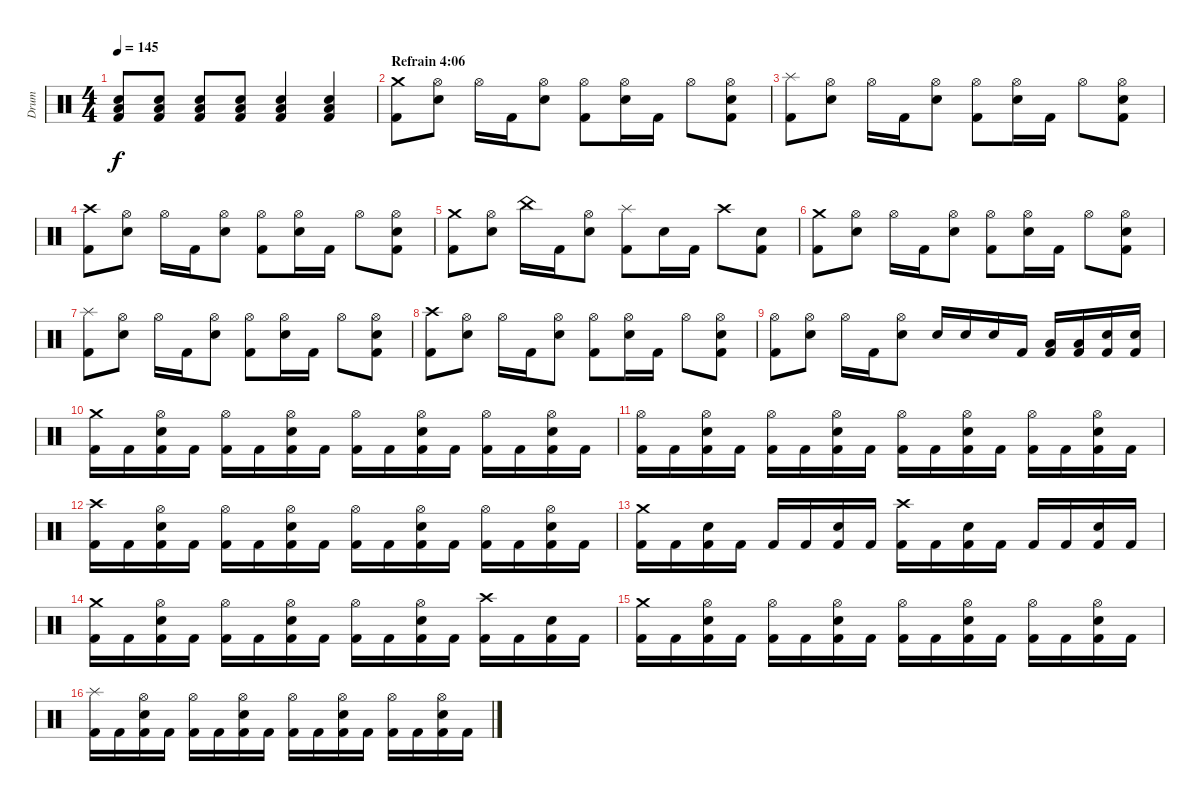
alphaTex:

\track ("Drum" "Drum") {instrument percussion}
\staff {score}
\articulation defaults
\ts (4 4)
\tempo 145
\clef neutral
\ks c
("Low Floor Tom (hit)" "Snare (hit) 2" "Kick (hit) 2").8{dy f} ("Low Floor Tom (hit)" "Snare (hit) 2" "Kick (hit) 2").8 ("Low Floor Tom (hit)" "Snare (hit) 2" "Kick (hit) 2").8 ("Low Floor Tom (hit)" "Snare (hit) 2" "Kick (hit) 2").8 ("Low Floor Tom (hit)" "Snare (hit) 2" "Kick (hit) 2").4 ("Low Floor Tom (hit)" "Snare (hit) 2" "Kick (hit) 2").4 |
\section ("" "Refrain 4:06")
("Crash medium (hit)" "Kick (hit) 2").8 ("Hi-Hat (open)" "Snare (hit) 2").8 "Hi-Hat (open)".16 "Kick (hit) 2".16 ("Hi-Hat (open)" "Snare (hit) 2").8 ("Hi-Hat (open)" "Kick (hit) 2").8 ("Hi-Hat (open)" "Snare (hit) 2").16 "Kick (hit) 2".16 "Hi-Hat (open)".8 ("Hi-Hat (open)" "Snare (hit) 2" "Kick (hit) 2").8 |
("Splash (hit)" "Kick (hit) 2").8 ("Hi-Hat (open)" "Snare (hit) 2").8 "Hi-Hat (open)".16 "Kick (hit) 2".16 ("Hi-Hat (open)" "Snare (hit) 2").8 ("Hi-Hat (open)" "Kick (hit) 2").8 ("Hi-Hat (open)" "Snare (hit) 2").16 "Kick (hit) 2".16 "Hi-Hat (open)".8 ("Hi-Hat (open)" "Snare (hit) 2" "Kick (hit) 2").8 |
("Crash high (hit)" "Kick (hit) 2").8 ("Hi-Hat (open)" "Snare (hit) 2").8 "Hi-Hat (open)".16 "Kick (hit) 2".16 ("Hi-Hat (open)" "Snare (hit) 2").8 ("Hi-Hat (open)" "Kick (hit) 2").8 ("Hi-Hat (open)" "Snare (hit) 2").16 "Kick (hit) 2".16 "Hi-Hat (open)".8 ("Hi-Hat (open)" "Snare (hit) 2" "Kick (hit) 2").8 |
("Crash medium (hit)" "Kick (hit) 2").8 ("Hi-Hat (open)" "Snare (hit) 2").8 "China (hit)".16 "Kick (hit) 2".16 ("Hi-Hat (open)" "Snare (hit) 2").8 ("Splash (hit)" "Kick (hit) 2").8 "Snare (hit) 2".16 "Kick (hit) 2".16 "Crash high (hit)".8 ("Snare (hit) 2" "Kick (hit) 2").8 |
("Crash medium (hit)" "Kick (hit) 2").8 ("Hi-Hat (open)" "Snare (hit) 2").8 "Hi-Hat (open)".16 "Kick (hit) 2".16 ("Hi-Hat (open)" "Snare (hit) 2").8 ("Hi-Hat (open)" "Kick (hit) 2").8 ("Hi-Hat (open)" "Snare (hit) 2").16 "Kick (hit) 2".16 "Hi-Hat (open)".8 ("Hi-Hat (open)" "Snare (hit) 2" "Kick (hit) 2").8 |
("Splash (hit)" "Kick (hit) 2").8 ("Hi-Hat (open)" "Snare (hit) 2").8 "Hi-Hat (open)".16 "Kick (hit) 2".16 ("Hi-Hat (open)" "Snare (hit) 2").8 ("Hi-Hat (open)" "Kick (hit) 2").8 ("Hi-Hat (open)" "Snare (hit) 2").16 "Kick (hit) 2".16 "Hi-Hat (open)".8 ("Hi-Hat (open)" "Snare (hit) 2" "Kick (hit) 2").8 |
("Crash high (hit)" "Kick (hit) 2").8 ("Hi-Hat (open)" "Snare (hit) 2").8 "Hi-Hat (open)".16 "Kick (hit) 2".16 ("Hi-Hat (open)" "Snare (hit) 2").8 ("Hi-Hat (open)" "Kick (hit) 2").8 ("Hi-Hat (open)" "Snare (hit) 2").16 "Kick (hit) 2".16 "Hi-Hat (open)".8 ("Hi-Hat (open)" "Snare (hit) 2" "Kick (hit) 2").8 |
("Hi-Hat (open)" "Kick (hit) 2").8 ("Hi-Hat (open)" "Snare (hit) 2").8 "Hi-Hat (open)".16 "Kick (hit) 2".16 ("Hi-Hat (open)" "Snare (hit) 2").8 "Snare (hit) 2".16 "Snare (hit) 2".16 "Snare (hit) 2".16 "Kick (hit) 2".16 ("Low Tom (hit)" "Kick (hit) 2").16 ("Low Tom (hit)" "Kick (hit) 2").16 ("Snare (hit) 2" "Kick (hit) 2").16 ("Snare (hit) 2" "Kick (hit) 2").16 |
("Crash medium (hit)" "Kick (hit) 2").16 "Kick (hit) 2".16 ("Hi-Hat (open)" "Snare (hit) 2" "Kick (hit) 2").16 "Kick (hit) 2".16 ("Hi-Hat (open)" "Kick (hit) 2").16 "Kick (hit) 2".16 ("Hi-Hat (open)" "Snare (hit) 2" "Kick (hit) 2").16 "Kick (hit) 2".16 ("Hi-Hat (open)" "Kick (hit) 2").16 "Kick (hit) 2".16 ("Hi-Hat (open)" "Snare (hit) 2" "Kick (hit) 2").16 "Kick (hit) 2".16 ("Hi-Hat (open)" "Kick (hit) 2").16 "Kick (hit) 2".16 ("Hi-Hat (open)" "Snare (hit) 2" "Kick (hit) 2").16 "Kick (hit) 2".16 |
("Hi-Hat (open)" "Kick (hit) 2").16 "Kick (hit) 2".16 ("Hi-Hat (open)" "Snare (hit) 2" "Kick (hit) 2").16 "Kick (hit) 2".16 ("Hi-Hat (open)" "Kick (hit) 2").16 "Kick (hit) 2".16 ("Hi-Hat (open)" "Snare (hit) 2" "Kick (hit) 2").16 "Kick (hit) 2".16 ("Hi-Hat (open)" "Kick (hit) 2").16 "Kick (hit) 2".16 ("Hi-Hat (open)" "Snare (hit) 2" "Kick (hit) 2").16 "Kick (hit) 2".16 ("Hi-Hat (open)" "Kick (hit) 2").16 "Kick (hit) 2".16 ("Hi-Hat (open)" "Snare (hit) 2" "Kick (hit) 2").16 "Kick (hit) 2".16 |
("Crash high (hit)" "Kick (hit) 2").16 "Kick (hit) 2".16 ("Hi-Hat (open)" "Snare (hit) 2" "Kick (hit) 2").16 "Kick (hit) 2".16 ("Hi-Hat (open)" "Kick (hit) 2").16 "Kick (hit) 2".16 ("Hi-Hat (open)" "Snare (hit) 2" "Kick (hit) 2").16 "Kick (hit) 2".16 ("Hi-Hat (open)" "Kick (hit) 2").16 "Kick (hit) 2".16 ("Hi-Hat (open)" "Snare (hit) 2" "Kick (hit) 2").16 "Kick (hit) 2".16 ("Hi-Hat (open)" "Kick (hit) 2").16 "Kick (hit) 2".16 ("Hi-Hat (open)" "Snare (hit) 2" "Kick (hit) 2").16 "Kick (hit) 2".16 |
("Crash medium (hit)" "Kick (hit) 2").16 "Kick (hit) 2".16 ("Snare (hit) 2" "Kick (hit) 2").16 "Kick (hit) 2".16 "Kick (hit) 2".16 "Kick (hit) 2".16 ("Snare (hit) 2" "Kick (hit) 2").16 "Kick (hit) 2".16 ("Crash high (hit)" "Kick (hit) 2").16 "Kick (hit) 2".16 ("Snare (hit) 2" "Kick (hit) 2").16 "Kick (hit) 2".16 "Kick (hit) 2".16 "Kick (hit) 2".16 ("Snare (hit) 2" "Kick (hit) 2").16 "Kick (hit) 2".16 |
("Crash medium (hit)" "Kick (hit) 2").16 "Kick (hit) 2".16 ("Hi-Hat (open)" "Snare (hit) 2" "Kick (hit) 2").16 "Kick (hit) 2".16 ("Hi-Hat (open)" "Kick (hit) 2").16 "Kick (hit) 2".16 ("Hi-Hat (open)" "Snare (hit) 2" "Kick (hit) 2").16 "Kick (hit) 2".16 ("Hi-Hat (open)" "Kick (hit) 2").16 "Kick (hit) 2".16 ("Hi-Hat (open)" "Snare (hit) 2" "Kick (hit) 2").16 "Kick (hit) 2".16 ("Crash high (hit)" "Kick (hit) 2").16 "Kick (hit) 2".16 ("Snare (hit) 2" "Kick (hit) 2").16 "Kick (hit) 2".16 |
("Crash medium (hit)" "Kick (hit) 2").16 "Kick (hit) 2".16 ("Hi-Hat (open)" "Snare (hit) 2" "Kick (hit) 2").16 "Kick (hit) 2".16 ("Hi-Hat (open)" "Kick (hit) 2").16 "Kick (hit) 2".16 ("Hi-Hat (open)" "Snare (hit) 2" "Kick (hit) 2").16 "Kick (hit) 2".16 ("Hi-Hat (open)" "Kick (hit) 2").16 "Kick (hit) 2".16 ("Hi-Hat (open)" "Snare (hit) 2" "Kick (hit) 2").16 "Kick (hit) 2".16 ("Hi-Hat (open)" "Kick (hit) 2").16 "Kick (hit) 2".16 ("Hi-Hat (open)" "Snare (hit) 2" "Kick (hit) 2").16 "Kick (hit) 2".16 |
("Splash (hit)" "Kick (hit) 2").16 "Kick (hit) 2".16 ("Hi-Hat (open)" "Snare (hit) 2" "Kick (hit) 2").16 "Kick (hit) 2".16 ("Hi-Hat (open)" "Kick (hit) 2").16 "Kick (hit) 2".16 ("Hi-Hat (open)" "Snare (hit) 2" "Kick (hit) 2").16 "Kick (hit) 2".16 ("Hi-Hat (open)" "Kick (hit) 2").16 "Kick (hit) 2".16 ("Hi-Hat (open)" "Snare (hit) 2" "Kick (hit) 2").16 "Kick (hit) 2".16 ("Hi-Hat (open)" "Kick (hit) 2").16 "Kick (hit) 2".16 ("Hi-Hat (open)" "Snare (hit) 2" "Kick (hit) 2").16 "Kick (hit) 2".16
